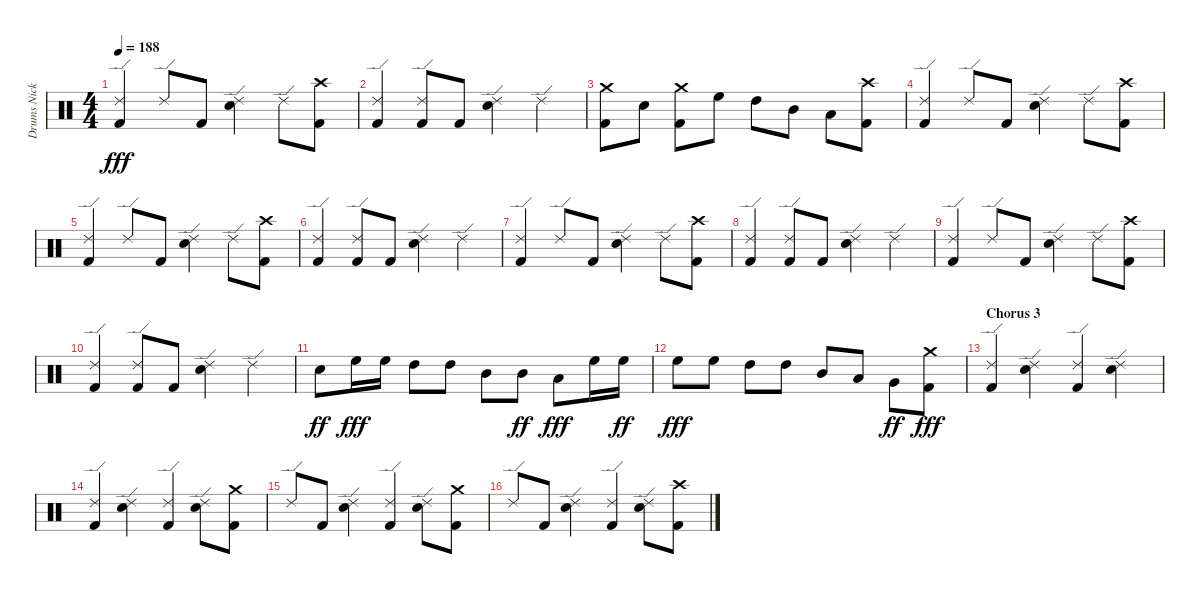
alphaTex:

\track ("Drums Nicko McBrain" "Drums Nick") {instrument percussion}
\staff {score}
\articulation defaults
\ts (4 4)
\tempo 188
\clef neutral
\ks c
("Ride (edge) 2" "Kick (hit) 2").4{dy fff} "Ride (edge) 2".8 "Kick (hit) 2".8 ("Ride (edge) 2" "Electric Snare (hit)").4 "Ride (edge) 2".8 ("Crash high (hit)" "Kick (hit) 2").8 |
("Ride (edge) 2" "Kick (hit) 2").4 ("Ride (edge) 2" "Kick (hit) 2").8 "Kick (hit) 2".8 ("Ride (edge) 2" "Electric Snare (hit)").4 "Ride (edge) 2".4 |
("Crash medium (hit)" "Kick (hit) 2").8 "Electric Snare (hit)".8 ("Crash medium (hit)" "Kick (hit) 2").8 "High Floor Tom (hit)".8 "High Tom (hit)".8 "Mid Tom (hit)".8 "Low Tom (hit)".8 ("Crash high (hit)" "Kick (hit) 2").8 |
("Ride (edge) 2" "Kick (hit) 2").4 "Ride (edge) 2".8 "Kick (hit) 2".8 ("Ride (edge) 2" "Electric Snare (hit)").4 "Ride (edge) 2".8 ("Crash high (hit)" "Kick (hit) 2").8 |
("Ride (edge) 2" "Kick (hit) 2").4 "Ride (edge) 2".8 "Kick (hit) 2".8 ("Ride (edge) 2" "Electric Snare (hit)").4 "Ride (edge) 2".8 ("Crash high (hit)" "Kick (hit) 2").8 |
("Ride (edge) 2" "Kick (hit) 2").4 ("Ride (edge) 2" "Kick (hit) 2").8 "Kick (hit) 2".8 ("Ride (edge) 2" "Electric Snare (hit)").4 "Ride (edge) 2".4 |
("Ride (edge) 2" "Kick (hit) 2").4 "Ride (edge) 2".8 "Kick (hit) 2".8 ("Ride (edge) 2" "Electric Snare (hit)").4 "Ride (edge) 2".8 ("Crash high (hit)" "Kick (hit) 2").8 |
("Ride (edge) 2" "Kick (hit) 2").4 ("Ride (edge) 2" "Kick (hit) 2").8 "Kick (hit) 2".8 ("Ride (edge) 2" "Electric Snare (hit)").4 "Ride (edge) 2".4 |
("Ride (edge) 2" "Kick (hit) 2").4 "Ride (edge) 2".8 "Kick (hit) 2".8 ("Ride (edge) 2" "Electric Snare (hit)").4 "Ride (edge) 2".8 ("Crash high (hit)" "Kick (hit) 2").8 |
("Ride (edge) 2" "Kick (hit) 2").4 ("Ride (edge) 2" "Kick (hit) 2").8 "Kick (hit) 2".8 ("Ride (edge) 2" "Electric Snare (hit)").4 "Ride (edge) 2".4 |
"Electric Snare (hit)".8{dy ff} "High Floor Tom (hit)".16{dy fff} "High Floor Tom (hit)".16 "High Tom (hit)".8 "High Tom (hit)".8 "Mid Tom (hit)".8 "Mid Tom (hit)".8{dy ff} "Low Tom (hit)".8{dy fff} "High Floor Tom (hit)".16 "High Floor Tom (hit)".16{dy ff} |
"High Floor Tom (hit)".8{dy fff} "High Floor Tom (hit)".8 "High Tom (hit)".8 "High Tom (hit)".8 "Mid Tom (hit)".8 "Low Tom (hit)".8 "Very Low Tom (hit)".8{dy ff} ("Crash medium (hit)" "Kick (hit) 2").8{dy fff} |
\section ("" "Chorus 3")
("Ride (edge) 2" "Kick (hit) 2").4 ("Ride (edge) 2" "Electric Snare (hit)").4 ("Ride (edge) 2" "Kick (hit) 2").4 ("Ride (edge) 2" "Electric Snare (hit)").4 |
("Ride (edge) 2" "Kick (hit) 2").4 ("Ride (edge) 2" "Electric Snare (hit)").4 ("Ride (edge) 2" "Kick (hit) 2").4 ("Ride (edge) 2" "Electric Snare (hit)").8 ("Crash medium (hit)" "Kick (hit) 2").8 |
"Ride (edge) 2".8 "Kick (hit) 2".8 ("Ride (edge) 2" "Electric Snare (hit)").4 ("Ride (edge) 2" "Kick (hit) 2").4 ("Ride (edge) 2" "Electric Snare (hit)").8 ("Crash medium (hit)" "Kick (hit) 2").8 |
"Ride (edge) 2".8 "Kick (hit) 2".8 ("Ride (edge) 2" "Electric Snare (hit)").4 ("Ride (edge) 2" "Kick (hit) 2").4 ("Ride (edge) 2" "Electric Snare (hit)").8 ("Crash high (hit)" "Kick (hit) 2").8
